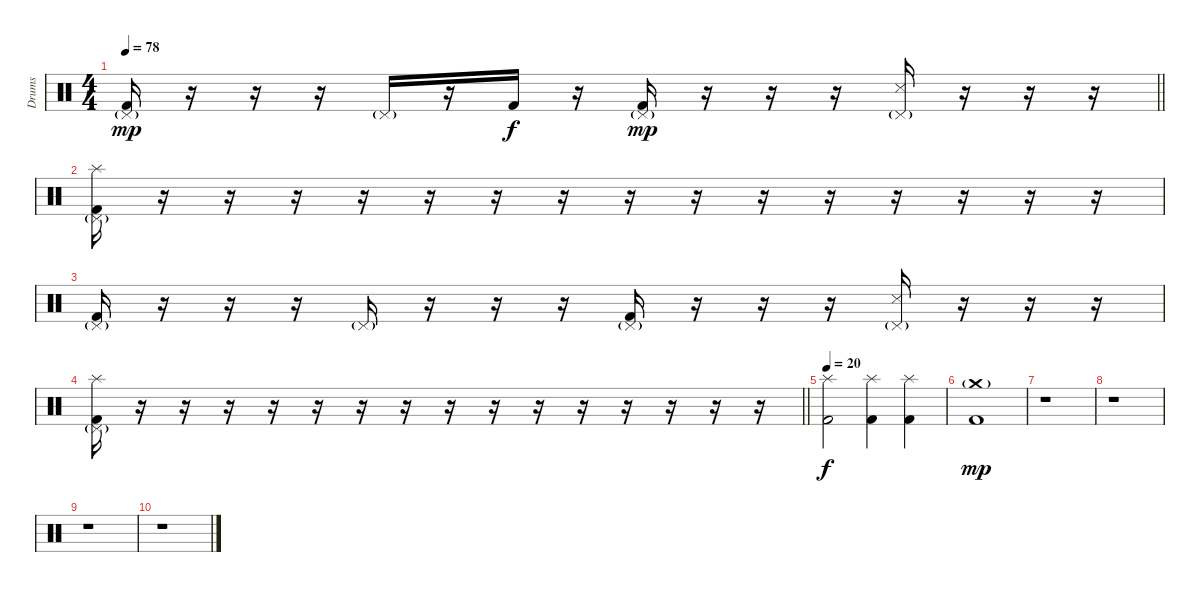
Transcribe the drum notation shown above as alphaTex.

\track ("Drums" "Drums") {instrument percussion}
\staff {score}
\articulation defaults
\ts (4 4)
\tempo 78
\clef neutral
\barLineRight lightlight
\ks c
("Pedal Hi-Hat (hit)"{g} "Kick (hit) 2").16{dy mp} r.16 r.16 r.16 "Pedal Hi-Hat (hit)"{g}.16 r.16 "Kick (hit) 2".16{dy f} r.16 ("Pedal Hi-Hat (hit)"{g} "Kick (hit) 2").16{dy mp} r.16 r.16 r.16 ("Pedal Hi-Hat (hit)"{g} "Snare (side stick) 3").16 r.16 r.16 r.16 |
("Splash (hit)" "Pedal Hi-Hat (hit)"{g} "Kick (hit) 2").16 r.16 r.16 r.16 r.16 r.16 r.16 r.16 r.16 r.16 r.16 r.16 r.16 r.16 r.16 r.16 |
("Pedal Hi-Hat (hit)"{g} "Kick (hit) 2").16 r.16 r.16 r.16 "Pedal Hi-Hat (hit)"{g}.16 r.16 r.16 r.16 ("Pedal Hi-Hat (hit)"{g} "Kick (hit) 2").16 r.16 r.16 r.16 ("Pedal Hi-Hat (hit)"{g} "Snare (side stick) 3").16 r.16 r.16 r.16 |
\barLineRight lightlight
("Splash (hit)" "Pedal Hi-Hat (hit)"{g} "Kick (hit) 2").16 r.16 r.16 r.16 r.16 r.16 r.16 r.16 r.16 r.16 r.16 r.16 r.16 r.16 r.16 r.16 |
\tempo 20
("Splash (hit)" "Kick (hit) 2").2{dy f} ("Splash (hit)" "Kick (hit) 2").4 ("Splash (hit)" "Kick (hit) 2").4 |
("Crash medium (hit)"{g} "Kick (hit) 2").1{dy mp} |
r.1 |
r.1 |
r.1 |
r.1
